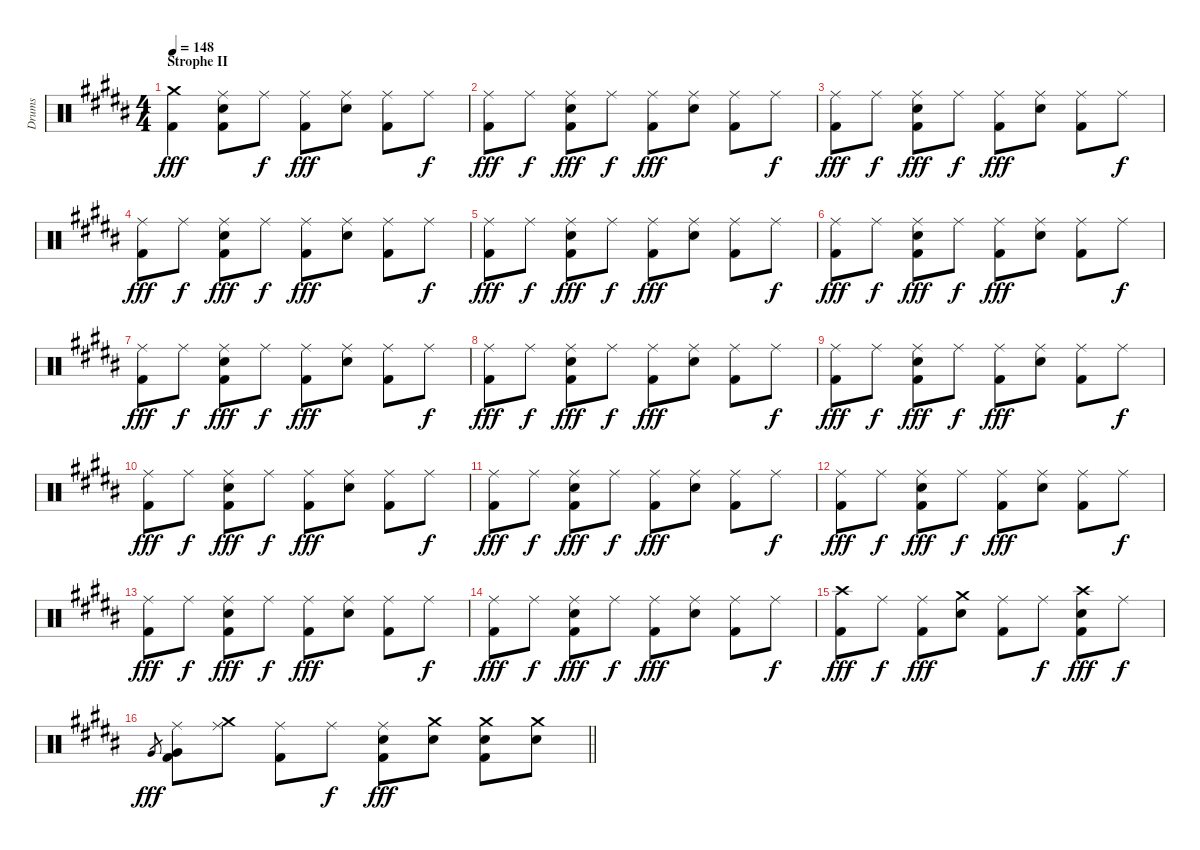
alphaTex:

\track ("Drums" "Drums") {instrument percussion}
\staff {score}
\articulation defaults
\ts (4 4)
\section ("" "Strophe II")
\tempo 148
\clef neutral
\ks b
("Crash medium (hit)" "Kick (hit) 2").4{dy fff} ("Ride (middle)" "Snare (hit) 2" "Kick (hit) 2").8 "Ride (middle)".8{dy f} ("Ride (middle)" "Kick (hit) 2").8{dy fff} ("Ride (middle)" "Snare (hit) 2").8 ("Ride (middle)" "Kick (hit) 2").8 "Ride (middle)".8{dy f} |
("Ride (middle)" "Kick (hit) 2").8{dy fff} "Ride (middle)".8{dy f} ("Ride (middle)" "Snare (hit) 2" "Kick (hit) 2").8{dy fff} "Ride (middle)".8{dy f} ("Ride (middle)" "Kick (hit) 2").8{dy fff} ("Ride (middle)" "Snare (hit) 2").8 ("Ride (middle)" "Kick (hit) 2").8 "Ride (middle)".8{dy f} |
("Ride (middle)" "Kick (hit) 2").8{dy fff} "Ride (middle)".8{dy f} ("Ride (middle)" "Snare (hit) 2" "Kick (hit) 2").8{dy fff} "Ride (middle)".8{dy f} ("Ride (middle)" "Kick (hit) 2").8{dy fff} ("Ride (middle)" "Snare (hit) 2").8 ("Ride (middle)" "Kick (hit) 2").8 "Ride (middle)".8{dy f} |
("Ride (middle)" "Kick (hit) 2").8{dy fff} "Ride (middle)".8{dy f} ("Ride (middle)" "Snare (hit) 2" "Kick (hit) 2").8{dy fff} "Ride (middle)".8{dy f} ("Ride (middle)" "Kick (hit) 2").8{dy fff} ("Ride (middle)" "Snare (hit) 2").8 ("Ride (middle)" "Kick (hit) 2").8 "Ride (middle)".8{dy f} |
("Ride (middle)" "Kick (hit) 2").8{dy fff} "Ride (middle)".8{dy f} ("Ride (middle)" "Snare (hit) 2" "Kick (hit) 2").8{dy fff} "Ride (middle)".8{dy f} ("Ride (middle)" "Kick (hit) 2").8{dy fff} ("Ride (middle)" "Snare (hit) 2").8 ("Ride (middle)" "Kick (hit) 2").8 "Ride (middle)".8{dy f} |
("Ride (middle)" "Kick (hit) 2").8{dy fff} "Ride (middle)".8{dy f} ("Ride (middle)" "Snare (hit) 2" "Kick (hit) 2").8{dy fff} "Ride (middle)".8{dy f} ("Ride (middle)" "Kick (hit) 2").8{dy fff} ("Ride (middle)" "Snare (hit) 2").8 ("Ride (middle)" "Kick (hit) 2").8 "Ride (middle)".8{dy f} |
("Ride (middle)" "Kick (hit) 2").8{dy fff} "Ride (middle)".8{dy f} ("Ride (middle)" "Snare (hit) 2" "Kick (hit) 2").8{dy fff} "Ride (middle)".8{dy f} ("Ride (middle)" "Kick (hit) 2").8{dy fff} ("Ride (middle)" "Snare (hit) 2").8 ("Ride (middle)" "Kick (hit) 2").8 "Ride (middle)".8{dy f} |
("Ride (middle)" "Kick (hit) 2").8{dy fff} "Ride (middle)".8{dy f} ("Ride (middle)" "Snare (hit) 2" "Kick (hit) 2").8{dy fff} "Ride (middle)".8{dy f} ("Ride (middle)" "Kick (hit) 2").8{dy fff} ("Ride (middle)" "Snare (hit) 2").8 ("Ride (middle)" "Kick (hit) 2").8 "Ride (middle)".8{dy f} |
("Ride (middle)" "Kick (hit) 2").8{dy fff} "Ride (middle)".8{dy f} ("Ride (middle)" "Snare (hit) 2" "Kick (hit) 2").8{dy fff} "Ride (middle)".8{dy f} ("Ride (middle)" "Kick (hit) 2").8{dy fff} ("Ride (middle)" "Snare (hit) 2").8 ("Ride (middle)" "Kick (hit) 2").8 "Ride (middle)".8{dy f} |
("Ride (middle)" "Kick (hit) 2").8{dy fff} "Ride (middle)".8{dy f} ("Ride (middle)" "Snare (hit) 2" "Kick (hit) 2").8{dy fff} "Ride (middle)".8{dy f} ("Ride (middle)" "Kick (hit) 2").8{dy fff} ("Ride (middle)" "Snare (hit) 2").8 ("Ride (middle)" "Kick (hit) 2").8 "Ride (middle)".8{dy f} |
("Ride (middle)" "Kick (hit) 2").8{dy fff} "Ride (middle)".8{dy f} ("Ride (middle)" "Snare (hit) 2" "Kick (hit) 2").8{dy fff} "Ride (middle)".8{dy f} ("Ride (middle)" "Kick (hit) 2").8{dy fff} ("Ride (middle)" "Snare (hit) 2").8 ("Ride (middle)" "Kick (hit) 2").8 "Ride (middle)".8{dy f} |
("Ride (middle)" "Kick (hit) 2").8{dy fff} "Ride (middle)".8{dy f} ("Ride (middle)" "Snare (hit) 2" "Kick (hit) 2").8{dy fff} "Ride (middle)".8{dy f} ("Ride (middle)" "Kick (hit) 2").8{dy fff} ("Ride (middle)" "Snare (hit) 2").8 ("Ride (middle)" "Kick (hit) 2").8 "Ride (middle)".8{dy f} |
("Ride (middle)" "Kick (hit) 2").8{dy fff} "Ride (middle)".8{dy f} ("Ride (middle)" "Snare (hit) 2" "Kick (hit) 2").8{dy fff} "Ride (middle)".8{dy f} ("Ride (middle)" "Kick (hit) 2").8{dy fff} ("Ride (middle)" "Snare (hit) 2").8 ("Ride (middle)" "Kick (hit) 2").8 "Ride (middle)".8{dy f} |
("Ride (middle)" "Kick (hit) 2").8{dy fff} "Ride (middle)".8{dy f} ("Ride (middle)" "Snare (hit) 2" "Kick (hit) 2").8{dy fff} "Ride (middle)".8{dy f} ("Ride (middle)" "Kick (hit) 2").8{dy fff} ("Ride (middle)" "Snare (hit) 2").8 ("Ride (middle)" "Kick (hit) 2").8 "Ride (middle)".8{dy f} |
("Crash high (hit)" "Kick (hit) 2").8{dy fff} "Ride (middle)".8{dy f} ("Ride (middle)" "Kick (hit) 2").8{dy fff} ("Crash medium (hit)" "Snare (hit) 2").8 ("Ride (middle)" "Kick (hit) 2").8 "Ride (middle)".8{dy f} ("Crash high (hit)" "Snare (hit) 2" "Kick (hit) 2").8{dy fff} "Ride (middle)".8{dy f} |
\barLineRight lightlight "Very Low Tom (hit)".8{gr dy fff}
("Ride (middle)" "Very Low Tom (hit)" "Kick (hit) 2").8 ("Ride (middle)" "Crash medium (hit)").8 ("Ride (middle)" "Kick (hit) 2").8 "Ride (middle)".8{dy f} ("Ride (middle)" "Electric Snare (hit)" "Kick (hit) 2").8{dy fff} ("Crash medium (hit)" "Snare (hit) 2").8 ("Crash medium (hit)" "Snare (hit) 2" "Kick (hit) 2").8 ("Crash medium (hit)" "Snare (hit) 2").8
